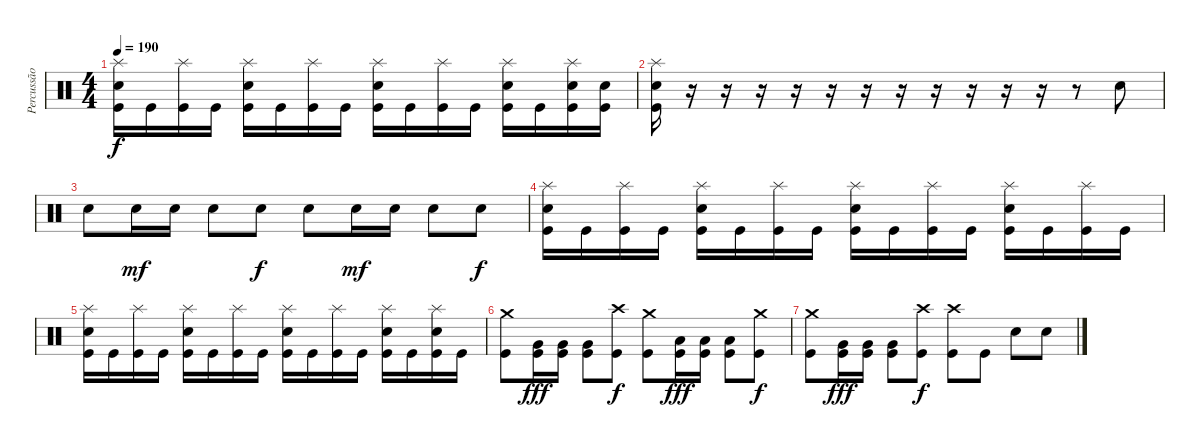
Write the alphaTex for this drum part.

\track ("Percussão" "Percussão") {instrument percussion}
\staff {score}
\articulation defaults
\ts (4 4)
\tempo 190
\clef neutral
\ks c
("Splash (hit)" "Snare (hit) 2" "Kick (hit)").16{dy f} "Kick (hit)".16 ("Splash (hit)" "Kick (hit)").16 "Kick (hit)".16 ("Splash (hit)" "Snare (hit) 2" "Kick (hit)").16 "Kick (hit)".16 ("Splash (hit)" "Kick (hit)").16 "Kick (hit)".16 ("Splash (hit)" "Snare (hit) 2" "Kick (hit)").16 "Kick (hit)".16 ("Splash (hit)" "Kick (hit)").16 "Kick (hit)".16 ("Splash (hit)" "Snare (hit) 2" "Kick (hit)").16 "Kick (hit)".16 ("Splash (hit)" "Snare (hit) 2" "Kick (hit)").16 ("Snare (hit) 2" "Kick (hit)").16 |
("Splash (hit)" "Snare (hit) 2" "Kick (hit)").16 r.16 r.16 r.16 r.16 r.16 r.16 r.16 r.16 r.16 r.16 r.16 r.8 "Snare (hit) 2".8 |
"Snare (hit) 2".8 "Snare (hit) 2".16{dy mf} "Snare (hit) 2".16 "Snare (hit) 2".8 "Snare (hit) 2".8{dy f} "Snare (hit) 2".8 "Snare (hit) 2".16{dy mf} "Snare (hit) 2".16 "Snare (hit) 2".8 "Snare (hit) 2".8{dy f} |
("Splash (hit)" "Snare (hit) 2" "Kick (hit)").16 "Kick (hit)".16 ("Splash (hit)" "Kick (hit)").16 "Kick (hit)".16 ("Splash (hit)" "Snare (hit) 2" "Kick (hit)").16 "Kick (hit)".16 ("Splash (hit)" "Kick (hit)").16 "Kick (hit)".16 ("Splash (hit)" "Snare (hit) 2" "Kick (hit)").16 "Kick (hit)".16 ("Splash (hit)" "Kick (hit)").16 "Kick (hit)".16 ("Splash (hit)" "Snare (hit) 2" "Kick (hit)").16 "Kick (hit)".16 ("Splash (hit)" "Kick (hit)").16 "Kick (hit)".16 |
("Splash (hit)" "Snare (hit) 2" "Kick (hit)").16 "Kick (hit)".16 ("Splash (hit)" "Kick (hit)").16 "Kick (hit)".16 ("Splash (hit)" "Snare (hit) 2" "Kick (hit)").16 "Kick (hit)".16 ("Splash (hit)" "Kick (hit)").16 "Kick (hit)".16 ("Splash (hit)" "Snare (hit) 2" "Kick (hit)").16 "Kick (hit)".16 ("Splash (hit)" "Kick (hit)").16 "Kick (hit)".16 ("Splash (hit)" "Snare (hit) 2" "Kick (hit)").16 "Kick (hit)".16 ("Splash (hit)" "Snare (hit) 2" "Kick (hit)").16 "Kick (hit)".16 |
("Crash medium (hit)" "Kick (hit)").8 ("Very Low Tom (hit)" "Kick (hit)").16{dy fff} ("Very Low Tom (hit)" "Kick (hit)").16 ("Very Low Tom (hit)" "Kick (hit)").8 ("Crash high (hit)" "Kick (hit)").8{dy f} ("Crash medium (hit)" "Kick (hit)").8 ("Low Tom (hit)" "Kick (hit)").16{dy fff} ("Low Tom (hit)" "Kick (hit)").16 ("Low Tom (hit)" "Kick (hit)").8 ("Crash medium (hit)" "Kick (hit)").8{dy f} |
("Crash medium (hit)" "Kick (hit)").8 ("Very Low Tom (hit)" "Kick (hit)").16{dy fff} ("Very Low Tom (hit)" "Kick (hit)").16 ("Very Low Tom (hit)" "Kick (hit)").8 ("Crash high (hit)" "Kick (hit)").8{dy f} ("Crash high (hit)" "Kick (hit)").8 "Kick (hit)".8 "Snare (hit) 2".8 "Snare (hit) 2".8
